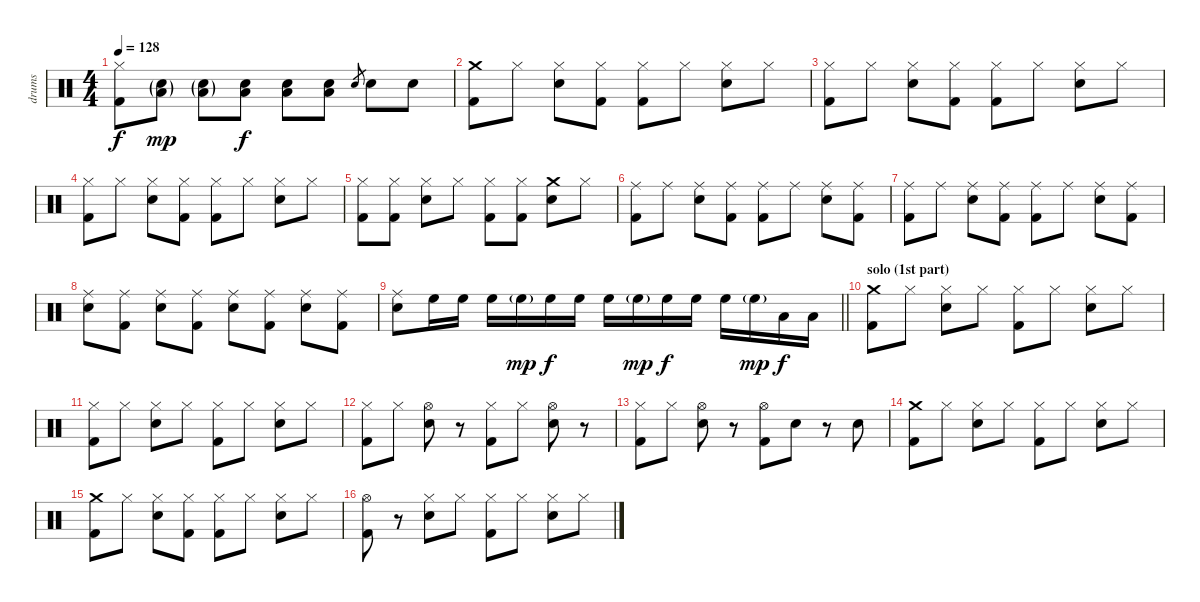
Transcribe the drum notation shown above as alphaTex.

\track ("drums" "drums") {instrument percussion}
\staff {score}
\articulation defaults
\ts (4 4)
\tempo 128
\clef neutral
\ks c
("Hi-Hat (closed)" "Kick (hit) 2").8{dy f} ("Snare (hit) 2"{g} "Low Floor Tom (hit)"{g}).8{dy mp} ("Snare (hit) 2"{g} "Low Floor Tom (hit)"{g}).8 ("Snare (hit) 2" "Low Floor Tom (hit)").8{dy f} ("Snare (hit) 2" "Low Floor Tom (hit)").8 ("Snare (hit) 2" "Low Floor Tom (hit)").8 "Snare (hit) 2".8{gr} "Snare (hit) 2".8 "Snare (hit) 2".8 |
("Crash medium (hit)" "Kick (hit) 2").8 "Hi-Hat (closed)".8 ("Hi-Hat (closed)" "Snare (hit) 2").8 ("Hi-Hat (closed)" "Kick (hit) 2").8 ("Hi-Hat (closed)" "Kick (hit) 2").8 "Hi-Hat (closed)".8 ("Hi-Hat (closed)" "Snare (hit) 2").8 "Hi-Hat (closed)".8 |
("Hi-Hat (closed)" "Kick (hit) 2").8 "Hi-Hat (closed)".8 ("Hi-Hat (closed)" "Snare (hit) 2").8 ("Hi-Hat (closed)" "Kick (hit) 2").8 ("Hi-Hat (closed)" "Kick (hit) 2").8 "Hi-Hat (closed)".8 ("Hi-Hat (closed)" "Snare (hit) 2").8 "Hi-Hat (closed)".8 |
("Hi-Hat (closed)" "Kick (hit) 2").8 "Hi-Hat (closed)".8 ("Hi-Hat (closed)" "Snare (hit) 2").8 ("Hi-Hat (closed)" "Kick (hit) 2").8 ("Hi-Hat (closed)" "Kick (hit) 2").8 "Hi-Hat (closed)".8 ("Hi-Hat (closed)" "Snare (hit) 2").8 "Hi-Hat (closed)".8 |
("Hi-Hat (closed)" "Kick (hit) 2").8 ("Hi-Hat (closed)" "Kick (hit) 2").8 ("Hi-Hat (closed)" "Snare (hit) 2").8 "Hi-Hat (closed)".8 ("Hi-Hat (closed)" "Kick (hit) 2").8 ("Hi-Hat (closed)" "Kick (hit) 2").8 ("Crash medium (hit)" "Snare (hit) 2").8 "Hi-Hat (closed)".8 |
("Ride (middle)" "Kick (hit) 2").8 "Ride (middle)".8 ("Ride (middle)" "Snare (hit) 2").8 ("Ride (middle)" "Kick (hit) 2").8 ("Ride (middle)" "Kick (hit) 2").8 "Ride (middle)".8 ("Ride (middle)" "Snare (hit) 2").8 ("Ride (middle)" "Kick (hit) 2").8 |
("Ride (middle)" "Kick (hit) 2").8 "Ride (middle)".8 ("Ride (middle)" "Snare (hit) 2").8 ("Ride (middle)" "Kick (hit) 2").8 ("Ride (middle)" "Kick (hit) 2").8 "Ride (middle)".8 ("Ride (middle)" "Snare (hit) 2").8 ("Ride (middle)" "Kick (hit) 2").8 |
("Ride (middle)" "Snare (hit) 2").8 ("Ride (middle)" "Kick (hit) 2").8 ("Ride (middle)" "Snare (hit) 2").8 ("Ride (middle)" "Kick (hit) 2").8 ("Ride (middle)" "Snare (hit) 2").8 ("Ride (middle)" "Kick (hit) 2").8 ("Ride (middle)" "Snare (hit) 2").8 ("Ride (middle)" "Kick (hit) 2").8 |
\barLineRight lightlight
("Ride (middle)" "Snare (hit) 2").8 "High Floor Tom (hit)".16 "High Floor Tom (hit)".16 "High Floor Tom (hit)".16 "High Floor Tom (hit)"{g}.16{dy mp} "High Floor Tom (hit)".16{dy f} "High Floor Tom (hit)".16 "High Floor Tom (hit)".16 "High Floor Tom (hit)"{g}.16{dy mp} "High Floor Tom (hit)".16{dy f} "High Floor Tom (hit)".16 "High Floor Tom (hit)".16 "High Floor Tom (hit)"{g}.16{dy mp} "Low Floor Tom (hit)".16{dy f} "Low Floor Tom (hit)".16 |
\section ("" "solo (1st part)")
("Crash medium (hit)" "Kick (hit) 2").8 "Hi-Hat (closed)".8 ("Hi-Hat (closed)" "Snare (hit) 2").8 "Hi-Hat (closed)".8 ("Hi-Hat (closed)" "Kick (hit) 2").8 "Hi-Hat (closed)".8 ("Hi-Hat (closed)" "Snare (hit) 2").8 "Hi-Hat (closed)".8 |
("Hi-Hat (closed)" "Kick (hit) 2").8 "Hi-Hat (closed)".8 ("Hi-Hat (closed)" "Snare (hit) 2").8 "Hi-Hat (closed)".8 ("Hi-Hat (closed)" "Kick (hit) 2").8 "Hi-Hat (closed)".8 ("Hi-Hat (closed)" "Snare (hit) 2").8 "Hi-Hat (closed)".8 |
("Hi-Hat (closed)" "Kick (hit) 2").8 "Hi-Hat (closed)".8 ("Hi-Hat (open)" "Snare (hit) 2").8 r.8 ("Hi-Hat (closed)" "Kick (hit) 2").8 "Hi-Hat (closed)".8 ("Hi-Hat (open)" "Snare (hit) 2").8 r.8 |
("Hi-Hat (closed)" "Kick (hit) 2").8 "Hi-Hat (closed)".8 ("Hi-Hat (open)" "Snare (hit) 2").8 r.8 ("Hi-Hat (open)" "Kick (hit) 2").8 "Snare (hit) 2".8 r.8 "Snare (hit) 2".8 |
("Crash medium (hit)" "Kick (hit) 2").8 "Hi-Hat (closed)".8 ("Hi-Hat (closed)" "Snare (hit) 2").8 "Hi-Hat (closed)".8 ("Hi-Hat (closed)" "Kick (hit) 2").8 "Hi-Hat (closed)".8 ("Hi-Hat (closed)" "Snare (hit) 2").8 "Hi-Hat (closed)".8 |
("Crash medium (hit)" "Kick (hit) 2").8 "Hi-Hat (closed)".8 ("Hi-Hat (closed)" "Snare (hit) 2").8 ("Hi-Hat (closed)" "Kick (hit) 2").8 ("Hi-Hat (closed)" "Kick (hit) 2").8 "Hi-Hat (closed)".8 ("Hi-Hat (closed)" "Snare (hit) 2").8 "Hi-Hat (closed)".8 |
("Hi-Hat (open)" "Kick (hit) 2").8 r.8 ("Hi-Hat (closed)" "Snare (hit) 2").8 "Hi-Hat (closed)".8 ("Hi-Hat (closed)" "Kick (hit) 2").8 "Hi-Hat (closed)".8 ("Hi-Hat (closed)" "Snare (hit) 2").8 "Hi-Hat (closed)".8
